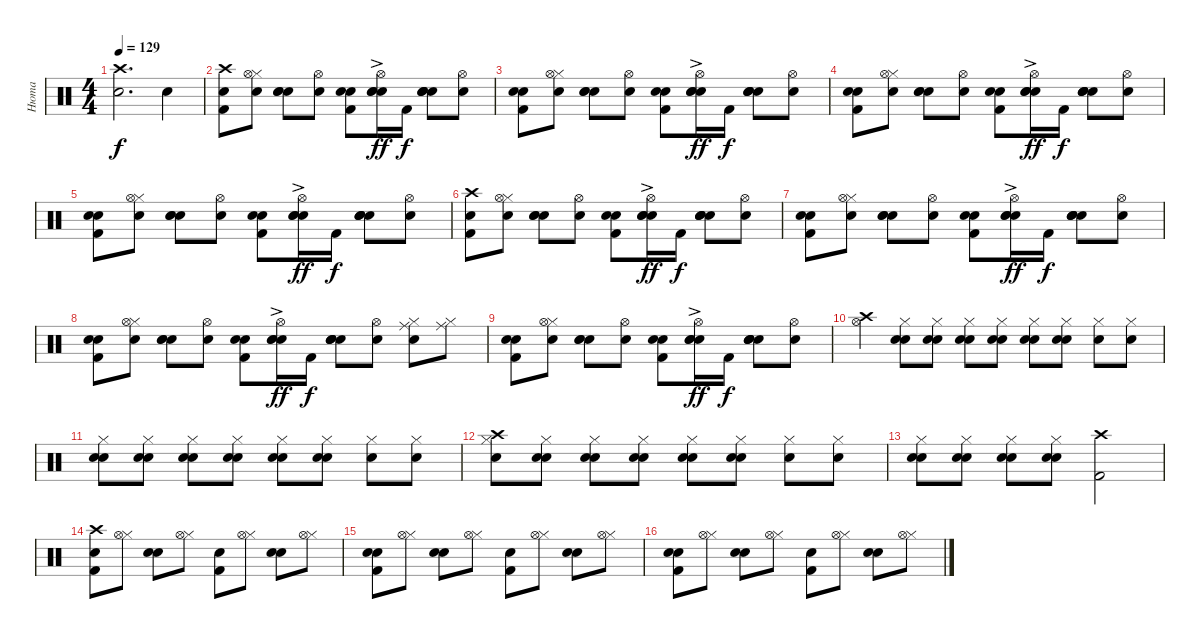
\track ("Нюта" "Нюта") {instrument percussion}
\staff {score}
\articulation defaults
\ts (4 4)
\tempo 129
\clef neutral
\ks c
("Electric Snare (hit)" "Crash high (hit)").2{d dy f} "Electric Snare (hit)".4 |
("Snare (hit)" "Kick (hit) 2" "Crash high (hit)").8 ("Hi-Hat (closed)" "Hi-Hat (open)" "Snare (hit)").8 ("Snare (hit)" "Electric Snare (hit)" "Snare (hit)").8 ("Hi-Hat (open)" "Snare (hit)").8 ("Snare (hit)" "Kick (hit) 2" "Snare (hit)").8 ("Snare (hit)" "Electric Snare (hit)"{ac} "Snare (hit)" "Hi-Hat (open)").16{dy ff} "Kick (hit) 2".16{dy f} ("Snare (hit)" "Electric Snare (hit)" "Snare (hit)" "Snare (hit)").8 ("Hi-Hat (open)" "Snare (hit)").8 |
("Snare (hit)" "Kick (hit) 2" "Snare (hit)").8 ("Hi-Hat (closed)" "Hi-Hat (open)" "Snare (hit)").8 ("Snare (hit)" "Electric Snare (hit)" "Snare (hit)").8 ("Hi-Hat (open)" "Snare (hit)").8 ("Snare (hit)" "Kick (hit) 2" "Snare (hit)").8 ("Snare (hit)" "Electric Snare (hit)"{ac} "Snare (hit)" "Hi-Hat (open)").16{dy ff} "Kick (hit) 2".16{dy f} ("Snare (hit)" "Electric Snare (hit)" "Snare (hit)" "Snare (hit)").8 ("Hi-Hat (open)" "Snare (hit)").8 |
("Snare (hit)" "Kick (hit) 2" "Snare (hit)").8 ("Hi-Hat (closed)" "Hi-Hat (open)" "Snare (hit)").8 ("Snare (hit)" "Electric Snare (hit)" "Snare (hit)").8 ("Hi-Hat (open)" "Snare (hit)").8 ("Snare (hit)" "Kick (hit) 2" "Snare (hit)").8 ("Snare (hit)" "Electric Snare (hit)"{ac} "Snare (hit)" "Hi-Hat (open)").16{dy ff} "Kick (hit) 2".16{dy f} ("Snare (hit)" "Electric Snare (hit)" "Snare (hit)" "Snare (hit)").8 ("Hi-Hat (open)" "Snare (hit)").8 |
("Snare (hit)" "Kick (hit) 2" "Snare (hit)").8 ("Hi-Hat (closed)" "Hi-Hat (open)" "Snare (hit)").8 ("Snare (hit)" "Electric Snare (hit)" "Snare (hit)").8 ("Hi-Hat (open)" "Snare (hit)").8 ("Snare (hit)" "Kick (hit) 2" "Snare (hit)").8 ("Snare (hit)" "Electric Snare (hit)"{ac} "Snare (hit)" "Hi-Hat (open)").16{dy ff} "Kick (hit) 2".16{dy f} ("Snare (hit)" "Electric Snare (hit)" "Snare (hit)" "Snare (hit)").8 ("Hi-Hat (open)" "Snare (hit)").8 |
("Crash high (hit)" "Kick (hit) 2" "Snare (hit)").8 ("Hi-Hat (closed)" "Hi-Hat (open)" "Snare (hit)").8 ("Snare (hit)" "Electric Snare (hit)" "Snare (hit)").8 ("Hi-Hat (open)" "Snare (hit)").8 ("Snare (hit)" "Kick (hit) 2" "Snare (hit)").8 ("Snare (hit)" "Electric Snare (hit)"{ac} "Snare (hit)" "Hi-Hat (open)").16{dy ff} "Kick (hit) 2".16{dy f} ("Snare (hit)" "Electric Snare (hit)" "Snare (hit)" "Snare (hit)").8 ("Hi-Hat (open)" "Snare (hit)").8 |
("Snare (hit)" "Kick (hit) 2" "Snare (hit)").8 ("Hi-Hat (closed)" "Hi-Hat (open)" "Snare (hit)").8 ("Snare (hit)" "Electric Snare (hit)" "Snare (hit)").8 ("Hi-Hat (open)" "Snare (hit)").8 ("Snare (hit)" "Kick (hit) 2" "Snare (hit)").8 ("Snare (hit)" "Electric Snare (hit)"{ac} "Snare (hit)" "Hi-Hat (open)").16{dy ff} "Kick (hit) 2".16{dy f} ("Snare (hit)" "Electric Snare (hit)" "Snare (hit)" "Snare (hit)").8 ("Hi-Hat (open)" "Snare (hit)").8 |
("Snare (hit)" "Kick (hit) 2" "Snare (hit)").8 ("Hi-Hat (closed)" "Hi-Hat (open)" "Snare (hit)").8 ("Snare (hit)" "Electric Snare (hit)" "Snare (hit)").8 ("Hi-Hat (open)" "Snare (hit)").8 ("Snare (hit)" "Kick (hit) 2" "Snare (hit)").8 ("Snare (hit)" "Electric Snare (hit)"{ac} "Snare (hit)" "Hi-Hat (open)").16{dy ff} "Kick (hit) 2".16{dy f} ("Snare (hit)" "Electric Snare (hit)" "Snare (hit)" "Snare (hit)").8 ("Hi-Hat (open)" "Snare (hit)").8 ("Hi-Hat (closed)" "Electric Snare (hit)" "Ride (middle)").8 ("Hi-Hat (closed)" "Ride (middle)").8 |
("Snare (hit)" "Kick (hit) 2" "Snare (hit)").8 ("Hi-Hat (closed)" "Hi-Hat (open)" "Snare (hit)").8 ("Snare (hit)" "Electric Snare (hit)" "Snare (hit)").8 ("Hi-Hat (open)" "Snare (hit)").8 ("Snare (hit)" "Kick (hit) 2" "Snare (hit)").8 ("Snare (hit)" "Electric Snare (hit)"{ac} "Snare (hit)" "Hi-Hat (open)").16{dy ff} "Kick (hit) 2".16{dy f} ("Snare (hit)" "Electric Snare (hit)" "Snare (hit)" "Snare (hit)").8 ("Hi-Hat (open)" "Snare (hit)").8 |
("Crash high (hit)" "Hi-Hat (open)").4 ("Hi-Hat (closed)" "Snare (hit)" "Snare (hit)").8 ("Hi-Hat (closed)" "Snare (hit)" "Snare (hit)").8 ("Hi-Hat (closed)" "Snare (hit)" "Snare (hit)").8 ("Hi-Hat (closed)" "Snare (hit)" "Snare (hit)").8 ("Hi-Hat (closed)" "Snare (hit)" "Snare (hit)").8 ("Hi-Hat (closed)" "Snare (hit)" "Snare (hit)").8 ("Hi-Hat (closed)" "Snare (hit)").8 ("Hi-Hat (closed)" "Snare (hit)").8 |
("Hi-Hat (closed)" "Snare (hit)" "Snare (hit)").8 ("Hi-Hat (closed)" "Snare (hit)" "Snare (hit)").8 ("Hi-Hat (closed)" "Snare (hit)" "Snare (hit)").8 ("Hi-Hat (closed)" "Snare (hit)" "Snare (hit)").8 ("Hi-Hat (closed)" "Snare (hit)" "Snare (hit)").8 ("Hi-Hat (closed)" "Snare (hit)" "Snare (hit)").8 ("Hi-Hat (closed)" "Snare (hit)").8 ("Hi-Hat (closed)" "Snare (hit)").8 |
("Hi-Hat (closed)" "Snare (hit)" "Crash high (hit)").8 ("Hi-Hat (closed)" "Snare (hit)" "Snare (hit)").8 ("Hi-Hat (closed)" "Snare (hit)" "Snare (hit)").8 ("Hi-Hat (closed)" "Snare (hit)" "Snare (hit)").8 ("Hi-Hat (closed)" "Snare (hit)" "Snare (hit)").8 ("Hi-Hat (closed)" "Snare (hit)" "Snare (hit)").8 ("Hi-Hat (closed)" "Snare (hit)").8 ("Hi-Hat (closed)" "Snare (hit)").8 |
("Hi-Hat (closed)" "Snare (hit)" "Snare (hit)").8 ("Hi-Hat (closed)" "Snare (hit)" "Snare (hit)").8 ("Hi-Hat (closed)" "Snare (hit)" "Snare (hit)").8 ("Hi-Hat (closed)" "Snare (hit)" "Snare (hit)").8 ("Crash high (hit)" "Kick (hit) 2").2 |
("Snare (hit)" "Kick (hit) 2" "Crash high (hit)").8 ("Hi-Hat (closed)" "Hi-Hat (open)").8 ("Snare (hit)" "Electric Snare (hit)").8 ("Hi-Hat (closed)" "Hi-Hat (open)").8 ("Snare (hit)" "Kick (hit) 2").8 ("Hi-Hat (closed)" "Hi-Hat (open)").8 ("Snare (hit)" "Electric Snare (hit)").8 ("Hi-Hat (closed)" "Hi-Hat (open)").8 |
("Snare (hit)" "Kick (hit) 2" "Snare (hit)").8 ("Hi-Hat (closed)" "Hi-Hat (open)").8 ("Snare (hit)" "Electric Snare (hit)").8 ("Hi-Hat (closed)" "Hi-Hat (open)").8 ("Snare (hit)" "Kick (hit) 2").8 ("Hi-Hat (closed)" "Hi-Hat (open)").8 ("Snare (hit)" "Electric Snare (hit)").8 ("Hi-Hat (closed)" "Hi-Hat (open)").8 |
("Snare (hit)" "Kick (hit) 2" "Snare (hit)").8 ("Hi-Hat (closed)" "Hi-Hat (open)").8 ("Snare (hit)" "Electric Snare (hit)").8 ("Hi-Hat (closed)" "Hi-Hat (open)").8 ("Snare (hit)" "Kick (hit) 2").8 ("Hi-Hat (closed)" "Hi-Hat (open)").8 ("Snare (hit)" "Electric Snare (hit)").8 ("Hi-Hat (closed)" "Hi-Hat (open)").8
